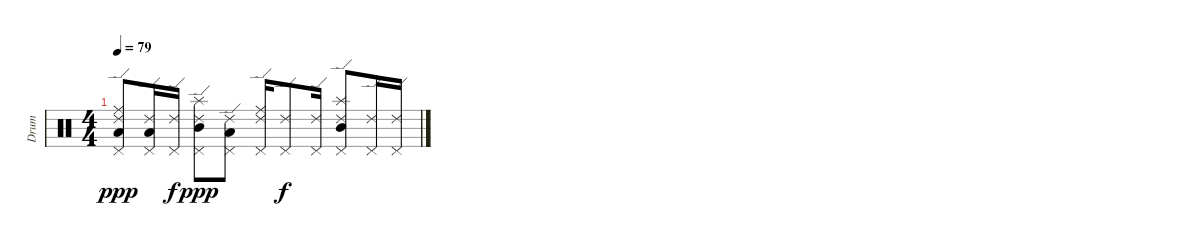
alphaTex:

\track ("Drum" "Drum") {instrument percussion}
\staff {score}
\articulation defaults
\ts (4 4)
\tempo 79
\clef neutral
\ks c
("Ride (edge) 2" "Pedal Hi-Hat (hit)" "Ride (middle)" "Low Tom (hit)").8{dy ppp} ("Ride (edge) 2" "Pedal Hi-Hat (hit)" "Low Tom (hit)").16 ("Ride (edge) 2" "Pedal Hi-Hat (hit)").16{dy f} ("Ride (edge) 2" "Pedal Hi-Hat (hit)" "Splash (hit)" "Mid Tom (hit)").8{dy ppp} ("Ride (edge) 2" "Pedal Hi-Hat (hit)" "Low Tom (hit)").8 ("Ride (edge) 2" "Pedal Hi-Hat (hit)" "Ride (middle)").16 ("Ride (edge) 2" "Pedal Hi-Hat (hit)").8{dy f} ("Ride (edge) 2" "Pedal Hi-Hat (hit)").16 ("Ride (edge) 2" "Pedal Hi-Hat (hit)" "Splash (hit)" "Mid Tom (hit)").8 ("Ride (edge) 2" "Pedal Hi-Hat (hit)").16 ("Ride (edge) 2" "Pedal Hi-Hat (hit)").16
